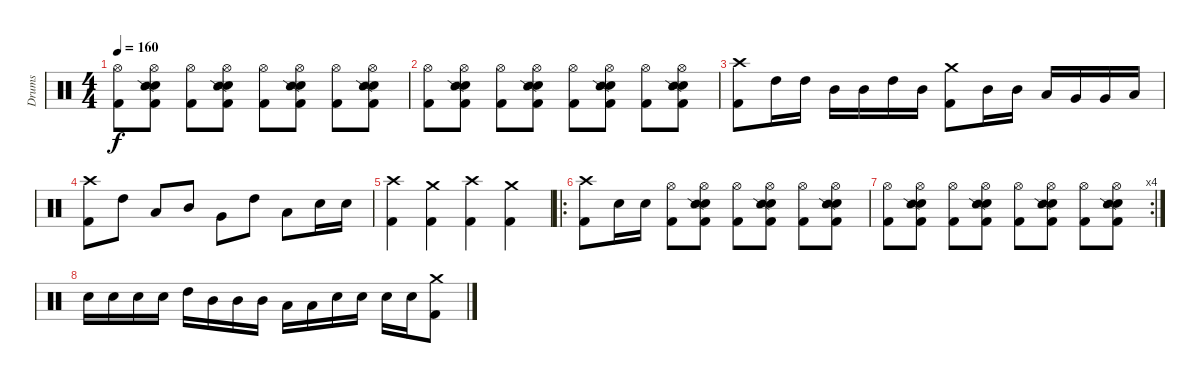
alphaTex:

\track ("Drums" "Drums") {instrument percussion}
\staff {score}
\articulation defaults
\ts (4 4)
\tempo 160
\clef neutral
\ks c
("Hi-Hat (open)" "Kick (hit) 2").8{dy f} ("Hi-Hat (open)" "Electric Snare (hit)" "Snare (side stick) 2" "Kick (hit) 2").8 ("Hi-Hat (open)" "Kick (hit) 2").8 ("Hi-Hat (open)" "Electric Snare (hit)" "Snare (side stick) 2" "Kick (hit) 2").8 ("Hi-Hat (open)" "Kick (hit) 2").8 ("Hi-Hat (open)" "Electric Snare (hit)" "Snare (side stick) 2" "Kick (hit) 2").8 ("Hi-Hat (open)" "Kick (hit) 2").8 ("Hi-Hat (open)" "Electric Snare (hit)" "Snare (side stick) 2" "Kick (hit) 2").8 |
("Hi-Hat (open)" "Kick (hit) 2").8 ("Hi-Hat (open)" "Electric Snare (hit)" "Snare (side stick) 2" "Kick (hit) 2").8 ("Hi-Hat (open)" "Kick (hit) 2").8 ("Hi-Hat (open)" "Electric Snare (hit)" "Snare (side stick) 2" "Kick (hit) 2").8 ("Hi-Hat (open)" "Kick (hit) 2").8 ("Hi-Hat (open)" "Electric Snare (hit)" "Snare (side stick) 2" "Kick (hit) 2").8 ("Hi-Hat (open)" "Kick (hit) 2").8 ("Hi-Hat (open)" "Electric Snare (hit)" "Snare (side stick) 2" "Kick (hit) 2").8 |
("Crash high (hit)" "Kick (hit) 2").8 "High Tom (hit)".16 "High Tom (hit)".16 "Mid Tom (hit)".16 "Mid Tom (hit)".16 "High Tom (hit)".16 "Mid Tom (hit)".16 ("Crash medium (hit)" "Kick (hit) 2").8 "Mid Tom (hit)".16 "Mid Tom (hit)".16 "Low Tom (hit)".16 "Very Low Tom (hit)".16 "Very Low Tom (hit)".16 "Low Floor Tom (hit)".16 |
("Crash high (hit)" "Kick (hit) 2").8 "High Tom (hit)".8 "Low Floor Tom (hit)".8 "Mid Tom (hit)".8 "Very Low Tom (hit)".8 "High Tom (hit)".8 "Low Floor Tom (hit)".8 "Electric Snare (hit)".16 "Electric Snare (hit)".16 |
("Crash high (hit)" "Kick (hit) 2").4 ("Crash medium (hit)" "Kick (hit) 2").4 ("Crash high (hit)" "Kick (hit) 2").4 ("Crash medium (hit)" "Kick (hit) 2").4 |
\ro
("Crash high (hit)" "Kick (hit) 2").8 "Electric Snare (hit)".16 "Electric Snare (hit)".16 ("Hi-Hat (open)" "Kick (hit) 2").8 ("Hi-Hat (open)" "Electric Snare (hit)" "Snare (side stick) 2" "Kick (hit) 2").8 ("Hi-Hat (open)" "Kick (hit) 2").8 ("Hi-Hat (open)" "Electric Snare (hit)" "Snare (side stick) 2" "Kick (hit) 2").8 ("Hi-Hat (open)" "Kick (hit) 2").8 ("Hi-Hat (open)" "Electric Snare (hit)" "Snare (side stick) 2" "Kick (hit) 2").8 |
\rc 4
("Hi-Hat (open)" "Kick (hit) 2").8 ("Hi-Hat (open)" "Electric Snare (hit)" "Snare (side stick) 2" "Kick (hit) 2").8 ("Hi-Hat (open)" "Kick (hit) 2").8 ("Hi-Hat (open)" "Electric Snare (hit)" "Snare (side stick) 2" "Kick (hit) 2").8 ("Hi-Hat (open)" "Kick (hit) 2").8 ("Hi-Hat (open)" "Electric Snare (hit)" "Snare (side stick) 2" "Kick (hit) 2").8 ("Hi-Hat (open)" "Kick (hit) 2").8 ("Hi-Hat (open)" "Electric Snare (hit)" "Snare (side stick) 2" "Kick (hit) 2").8 |
"Electric Snare (hit)".16 "Electric Snare (hit)".16 "Electric Snare (hit)".16 "Electric Snare (hit)".16 "High Tom (hit)".16 "Mid Tom (hit)".16 "Mid Tom (hit)".16 "Mid Tom (hit)".16 "Low Tom (hit)".16 "Low Tom (hit)".16 "Electric Snare (hit)".16 "Electric Snare (hit)".16 "Electric Snare (hit)".16 "Electric Snare (hit)".16 ("Crash medium (hit)" "Kick (hit) 2").8
